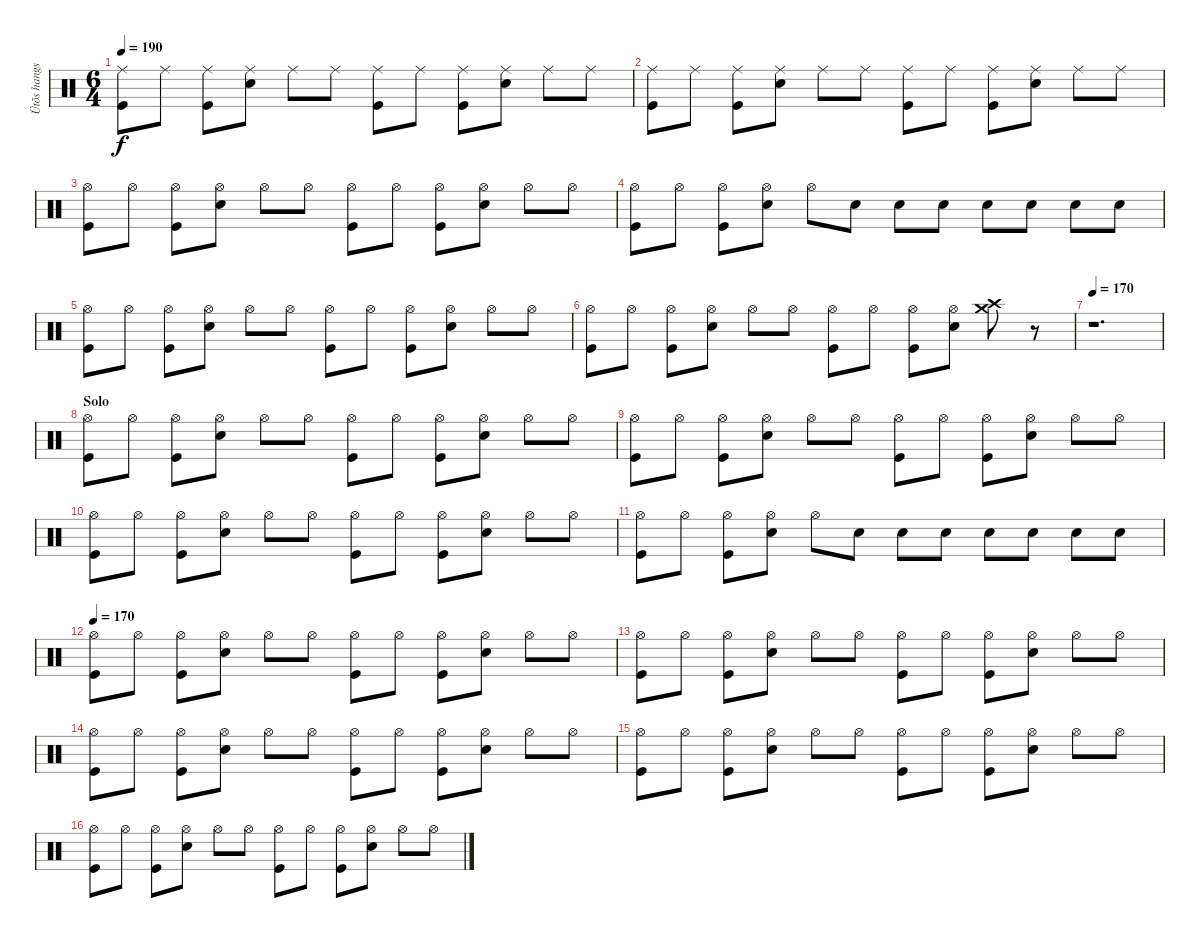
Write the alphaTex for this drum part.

\track ("Ütõs hangszer" "Ütõs hangs") {instrument percussion}
\staff {score}
\articulation defaults
\ts (6 4)
\tempo 190
\clef neutral
\ks c
("Ride (middle)" "Kick (hit)").8{dy f} "Ride (middle)".8 ("Ride (middle)" "Kick (hit)").8 ("Ride (middle)" "Snare (hit) 2").8 "Ride (middle)".8 "Ride (middle)".8 ("Ride (middle)" "Kick (hit)").8 "Ride (middle)".8 ("Ride (middle)" "Kick (hit)").8 ("Ride (middle)" "Snare (hit) 2").8 "Ride (middle)".8 "Ride (middle)".8 |
("Ride (middle)" "Kick (hit)").8 "Ride (middle)".8 ("Ride (middle)" "Kick (hit)").8 ("Ride (middle)" "Snare (hit) 2").8 "Ride (middle)".8 "Ride (middle)".8 ("Ride (middle)" "Kick (hit)").8 "Ride (middle)".8 ("Ride (middle)" "Kick (hit)").8 ("Ride (middle)" "Snare (hit) 2").8 "Ride (middle)".8 "Ride (middle)".8 |
("Hi-Hat (open)" "Kick (hit)").8 "Hi-Hat (open)".8 ("Hi-Hat (open)" "Kick (hit)").8 ("Hi-Hat (open)" "Snare (hit) 2").8 "Hi-Hat (open)".8 "Hi-Hat (open)".8 ("Hi-Hat (open)" "Kick (hit)").8 "Hi-Hat (open)".8 ("Hi-Hat (open)" "Kick (hit)").8 ("Hi-Hat (open)" "Snare (hit) 2").8 "Hi-Hat (open)".8 "Hi-Hat (open)".8 |
("Hi-Hat (open)" "Kick (hit)").8 "Hi-Hat (open)".8 ("Hi-Hat (open)" "Kick (hit)").8 ("Hi-Hat (open)" "Snare (hit) 2").8 "Hi-Hat (open)".8 "Snare (hit) 2".8 "Snare (hit) 2".8 "Snare (hit) 2".8 "Snare (hit) 2".8 "Snare (hit) 2".8 "Snare (hit) 2".8 "Snare (hit) 2".8 |
("Hi-Hat (open)" "Kick (hit)").8 "Hi-Hat (open)".8 ("Hi-Hat (open)" "Kick (hit)").8 ("Hi-Hat (open)" "Snare (hit) 2").8 "Hi-Hat (open)".8 "Hi-Hat (open)".8 ("Hi-Hat (open)" "Kick (hit)").8 "Hi-Hat (open)".8 ("Hi-Hat (open)" "Kick (hit)").8 ("Hi-Hat (open)" "Snare (hit) 2").8 "Hi-Hat (open)".8 "Hi-Hat (open)".8 |
("Hi-Hat (open)" "Kick (hit)").8 "Hi-Hat (open)".8 ("Hi-Hat (open)" "Kick (hit)").8 ("Hi-Hat (open)" "Snare (hit) 2").8 "Hi-Hat (open)".8 "Hi-Hat (open)".8 ("Hi-Hat (open)" "Kick (hit)").8 "Hi-Hat (open)".8 ("Hi-Hat (open)" "Kick (hit)").8 ("Hi-Hat (open)" "Snare (hit) 2").8 ("Crash high (hit)" "Crash medium (hit)").8 r.8 |
\tempo 170
r.1{d} |
\section ("" "Solo")
("Hi-Hat (open)" "Kick (hit)").8 "Hi-Hat (open)".8 ("Hi-Hat (open)" "Kick (hit)").8 ("Hi-Hat (open)" "Snare (hit) 2").8 "Hi-Hat (open)".8 "Hi-Hat (open)".8 ("Hi-Hat (open)" "Kick (hit)").8 "Hi-Hat (open)".8 ("Hi-Hat (open)" "Kick (hit)").8 ("Hi-Hat (open)" "Snare (hit) 2").8 "Hi-Hat (open)".8 "Hi-Hat (open)".8 |
("Hi-Hat (open)" "Kick (hit)").8 "Hi-Hat (open)".8 ("Hi-Hat (open)" "Kick (hit)").8 ("Hi-Hat (open)" "Snare (hit) 2").8 "Hi-Hat (open)".8 "Hi-Hat (open)".8 ("Hi-Hat (open)" "Kick (hit)").8 "Hi-Hat (open)".8 ("Hi-Hat (open)" "Kick (hit)").8 ("Hi-Hat (open)" "Snare (hit) 2").8 "Hi-Hat (open)".8 "Hi-Hat (open)".8 |
("Hi-Hat (open)" "Kick (hit)").8 "Hi-Hat (open)".8 ("Hi-Hat (open)" "Kick (hit)").8 ("Hi-Hat (open)" "Snare (hit) 2").8 "Hi-Hat (open)".8 "Hi-Hat (open)".8 ("Hi-Hat (open)" "Kick (hit)").8 "Hi-Hat (open)".8 ("Hi-Hat (open)" "Kick (hit)").8 ("Hi-Hat (open)" "Snare (hit) 2").8 "Hi-Hat (open)".8 "Hi-Hat (open)".8 |
("Hi-Hat (open)" "Kick (hit)").8 "Hi-Hat (open)".8 ("Hi-Hat (open)" "Kick (hit)").8 ("Hi-Hat (open)" "Snare (hit) 2").8 "Hi-Hat (open)".8 "Snare (hit) 2".8 "Snare (hit) 2".8 "Snare (hit) 2".8 "Snare (hit) 2".8 "Snare (hit) 2".8 "Snare (hit) 2".8 "Snare (hit) 2".8 |
\tempo 170
("Hi-Hat (open)" "Kick (hit)").8 "Hi-Hat (open)".8 ("Hi-Hat (open)" "Kick (hit)").8 ("Hi-Hat (open)" "Snare (hit) 2").8 "Hi-Hat (open)".8 "Hi-Hat (open)".8 ("Hi-Hat (open)" "Kick (hit)").8 "Hi-Hat (open)".8 ("Hi-Hat (open)" "Kick (hit)").8 ("Hi-Hat (open)" "Snare (hit) 2").8 "Hi-Hat (open)".8 "Hi-Hat (open)".8 |
("Hi-Hat (open)" "Kick (hit)").8 "Hi-Hat (open)".8 ("Hi-Hat (open)" "Kick (hit)").8 ("Hi-Hat (open)" "Snare (hit) 2").8 "Hi-Hat (open)".8 "Hi-Hat (open)".8 ("Hi-Hat (open)" "Kick (hit)").8 "Hi-Hat (open)".8 ("Hi-Hat (open)" "Kick (hit)").8 ("Hi-Hat (open)" "Snare (hit) 2").8 "Hi-Hat (open)".8 "Hi-Hat (open)".8 |
("Hi-Hat (open)" "Kick (hit)").8 "Hi-Hat (open)".8 ("Hi-Hat (open)" "Kick (hit)").8 ("Hi-Hat (open)" "Snare (hit) 2").8 "Hi-Hat (open)".8 "Hi-Hat (open)".8 ("Hi-Hat (open)" "Kick (hit)").8 "Hi-Hat (open)".8 ("Hi-Hat (open)" "Kick (hit)").8 ("Hi-Hat (open)" "Snare (hit) 2").8 "Hi-Hat (open)".8 "Hi-Hat (open)".8 |
("Hi-Hat (open)" "Kick (hit)").8 "Hi-Hat (open)".8 ("Hi-Hat (open)" "Kick (hit)").8 ("Hi-Hat (open)" "Snare (hit) 2").8 "Hi-Hat (open)".8 "Hi-Hat (open)".8 ("Hi-Hat (open)" "Kick (hit)").8 "Hi-Hat (open)".8 ("Hi-Hat (open)" "Kick (hit)").8 ("Hi-Hat (open)" "Snare (hit) 2").8 "Hi-Hat (open)".8 "Hi-Hat (open)".8 |
("Hi-Hat (open)" "Kick (hit)").8 "Hi-Hat (open)".8 ("Hi-Hat (open)" "Kick (hit)").8 ("Hi-Hat (open)" "Snare (hit) 2").8 "Hi-Hat (open)".8 "Hi-Hat (open)".8 ("Hi-Hat (open)" "Kick (hit)").8 "Hi-Hat (open)".8 ("Hi-Hat (open)" "Kick (hit)").8 ("Hi-Hat (open)" "Snare (hit) 2").8 "Hi-Hat (open)".8 "Hi-Hat (open)".8
